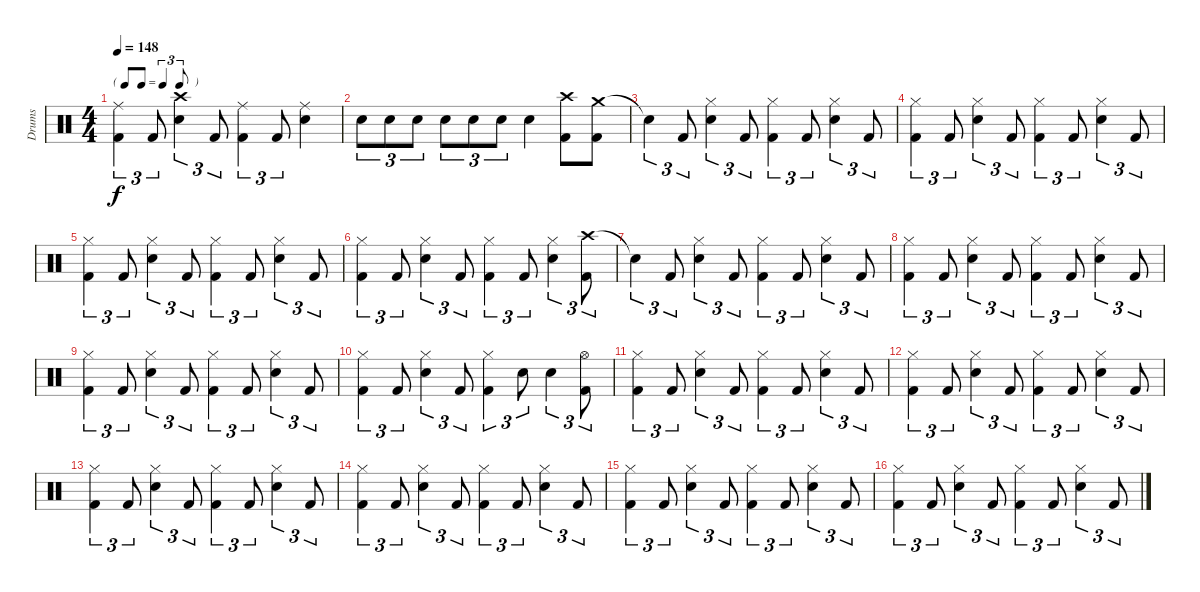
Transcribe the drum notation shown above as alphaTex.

\track ("Drums" "Drums") {instrument percussion}
\staff {score}
\articulation defaults
\ts (4 4)
\tf triplet8th
\tempo 148
\clef neutral
\ks c
("Ride (middle)" "Kick (hit) 2").4{tu (3 2) dy f} "Kick (hit) 2".8{tu (3 2)} ("Crash high (hit)" "Snare (hit) 2").4{tu (3 2)} "Kick (hit) 2".8{tu (3 2)} ("Ride (middle)" "Kick (hit) 2").4{tu (3 2)} "Kick (hit) 2".8{tu (3 2)} ("Ride (middle)" "Snare (hit) 2").4 |
"Snare (hit) 2".8{tu (3 2)} "Snare (hit) 2".8{tu (3 2)} "Snare (hit) 2".8{tu (3 2)} "Snare (hit) 2".8{tu (3 2)} "Snare (hit) 2".8{tu (3 2)} "Snare (hit) 2".8{tu (3 2)} "Snare (hit) 2".4 ("Crash high (hit)" "Kick (hit) 2").8 ("Crash medium (hit)" "Kick (hit) 2").8 |
"Snare (hit)"{t}.4{tu (3 2)} "Kick (hit) 2".8{tu (3 2)} ("Hi-Hat (closed)" "Snare (hit) 2").4{tu (3 2)} "Kick (hit) 2".8{tu (3 2)} ("Hi-Hat (closed)" "Kick (hit) 2").4{tu (3 2)} "Kick (hit) 2".8{tu (3 2)} ("Hi-Hat (closed)" "Snare (hit) 2").4{tu (3 2)} "Kick (hit) 2".8{tu (3 2)} |
("Hi-Hat (closed)" "Kick (hit) 2").4{tu (3 2)} "Kick (hit) 2".8{tu (3 2)} ("Hi-Hat (closed)" "Snare (hit) 2").4{tu (3 2)} "Kick (hit) 2".8{tu (3 2)} ("Hi-Hat (closed)" "Kick (hit) 2").4{tu (3 2)} "Kick (hit) 2".8{tu (3 2)} ("Hi-Hat (closed)" "Snare (hit) 2").4{tu (3 2)} "Kick (hit) 2".8{tu (3 2)} |
("Hi-Hat (closed)" "Kick (hit) 2").4{tu (3 2)} "Kick (hit) 2".8{tu (3 2)} ("Hi-Hat (closed)" "Snare (hit) 2").4{tu (3 2)} "Kick (hit) 2".8{tu (3 2)} ("Hi-Hat (closed)" "Kick (hit) 2").4{tu (3 2)} "Kick (hit) 2".8{tu (3 2)} ("Hi-Hat (closed)" "Snare (hit) 2").4{tu (3 2)} "Kick (hit) 2".8{tu (3 2)} |
("Hi-Hat (closed)" "Kick (hit) 2").4{tu (3 2)} "Kick (hit) 2".8{tu (3 2)} ("Hi-Hat (closed)" "Snare (hit) 2").4{tu (3 2)} "Kick (hit) 2".8{tu (3 2)} ("Hi-Hat (closed)" "Kick (hit) 2").4{tu (3 2)} "Kick (hit) 2".8{tu (3 2)} ("Hi-Hat (closed)" "Snare (hit) 2").4{tu (3 2)} ("Crash high (hit)" "Kick (hit) 2").8{tu (3 2)} |
"Snare (hit)"{t}.4{tu (3 2)} "Kick (hit) 2".8{tu (3 2)} ("Hi-Hat (closed)" "Snare (hit) 2").4{tu (3 2)} "Kick (hit) 2".8{tu (3 2)} ("Hi-Hat (closed)" "Kick (hit) 2").4{tu (3 2)} "Kick (hit) 2".8{tu (3 2)} ("Hi-Hat (closed)" "Snare (hit) 2").4{tu (3 2)} "Kick (hit) 2".8{tu (3 2)} |
("Hi-Hat (closed)" "Kick (hit) 2").4{tu (3 2)} "Kick (hit) 2".8{tu (3 2)} ("Hi-Hat (closed)" "Snare (hit) 2").4{tu (3 2)} "Kick (hit) 2".8{tu (3 2)} ("Hi-Hat (closed)" "Kick (hit) 2").4{tu (3 2)} "Kick (hit) 2".8{tu (3 2)} ("Hi-Hat (closed)" "Snare (hit) 2").4{tu (3 2)} "Kick (hit) 2".8{tu (3 2)} |
("Hi-Hat (closed)" "Kick (hit) 2").4{tu (3 2)} "Kick (hit) 2".8{tu (3 2)} ("Hi-Hat (closed)" "Snare (hit) 2").4{tu (3 2)} "Kick (hit) 2".8{tu (3 2)} ("Hi-Hat (closed)" "Kick (hit) 2").4{tu (3 2)} "Kick (hit) 2".8{tu (3 2)} ("Hi-Hat (closed)" "Snare (hit) 2").4{tu (3 2)} "Kick (hit) 2".8{tu (3 2)} |
("Hi-Hat (closed)" "Kick (hit) 2").4{tu (3 2)} "Kick (hit) 2".8{tu (3 2)} ("Hi-Hat (closed)" "Snare (hit) 2").4{tu (3 2)} "Kick (hit) 2".8{tu (3 2)} ("Hi-Hat (closed)" "Kick (hit) 2").4{tu (3 2)} "Snare (hit) 2".8{tu (3 2)} "Snare (hit) 2".4{tu (3 2)} ("Hi-Hat (open)" "Kick (hit) 2").8{tu (3 2)} |
("Hi-Hat (closed)" "Kick (hit) 2").4{tu (3 2)} "Kick (hit) 2".8{tu (3 2)} ("Hi-Hat (closed)" "Snare (hit) 2").4{tu (3 2)} "Kick (hit) 2".8{tu (3 2)} ("Hi-Hat (closed)" "Kick (hit) 2").4{tu (3 2)} "Kick (hit) 2".8{tu (3 2)} ("Hi-Hat (closed)" "Snare (hit) 2").4{tu (3 2)} "Kick (hit) 2".8{tu (3 2)} |
("Hi-Hat (closed)" "Kick (hit) 2").4{tu (3 2)} "Kick (hit) 2".8{tu (3 2)} ("Hi-Hat (closed)" "Snare (hit) 2").4{tu (3 2)} "Kick (hit) 2".8{tu (3 2)} ("Hi-Hat (closed)" "Kick (hit) 2").4{tu (3 2)} "Kick (hit) 2".8{tu (3 2)} ("Hi-Hat (closed)" "Snare (hit) 2").4{tu (3 2)} "Kick (hit) 2".8{tu (3 2)} |
("Hi-Hat (closed)" "Kick (hit) 2").4{tu (3 2)} "Kick (hit) 2".8{tu (3 2)} ("Hi-Hat (closed)" "Snare (hit) 2").4{tu (3 2)} "Kick (hit) 2".8{tu (3 2)} ("Hi-Hat (closed)" "Kick (hit) 2").4{tu (3 2)} "Kick (hit) 2".8{tu (3 2)} ("Hi-Hat (closed)" "Snare (hit) 2").4{tu (3 2)} "Kick (hit) 2".8{tu (3 2)} |
("Hi-Hat (closed)" "Kick (hit) 2").4{tu (3 2)} "Kick (hit) 2".8{tu (3 2)} ("Hi-Hat (closed)" "Snare (hit) 2").4{tu (3 2)} "Kick (hit) 2".8{tu (3 2)} ("Hi-Hat (closed)" "Kick (hit) 2").4{tu (3 2)} "Kick (hit) 2".8{tu (3 2)} ("Hi-Hat (closed)" "Snare (hit) 2").4{tu (3 2)} "Kick (hit) 2".8{tu (3 2)} |
("Hi-Hat (closed)" "Kick (hit) 2").4{tu (3 2)} "Kick (hit) 2".8{tu (3 2)} ("Hi-Hat (closed)" "Snare (hit) 2").4{tu (3 2)} "Kick (hit) 2".8{tu (3 2)} ("Hi-Hat (closed)" "Kick (hit) 2").4{tu (3 2)} "Kick (hit) 2".8{tu (3 2)} ("Hi-Hat (closed)" "Snare (hit) 2").4{tu (3 2)} "Kick (hit) 2".8{tu (3 2)} |
("Hi-Hat (closed)" "Kick (hit) 2").4{tu (3 2)} "Kick (hit) 2".8{tu (3 2)} ("Hi-Hat (closed)" "Snare (hit) 2").4{tu (3 2)} "Kick (hit) 2".8{tu (3 2)} ("Hi-Hat (closed)" "Kick (hit) 2").4{tu (3 2)} "Kick (hit) 2".8{tu (3 2)} ("Hi-Hat (closed)" "Snare (hit) 2").4{tu (3 2)} "Kick (hit) 2".8{tu (3 2)}
